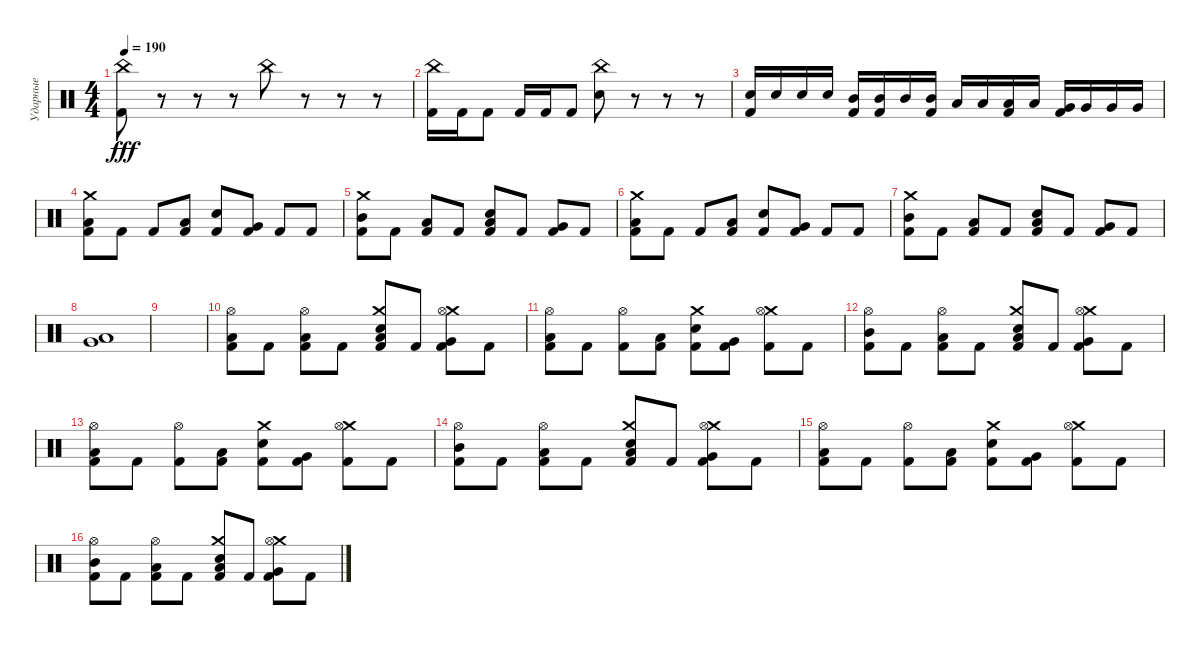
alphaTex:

\track ("Ударные" "Ударные") {instrument percussion}
\staff {score}
\articulation defaults
\ts (4 4)
\tempo 190
\clef neutral
\ks c
("China (hit)" "Kick (hit) 2").8{dy fff} r.8 r.8 r.8 "China (hit)".8 r.8 r.8 r.8 |
("China (hit)" "Kick (hit) 2").16 "Kick (hit) 2".16 "Kick (hit) 2".8 "Kick (hit) 2".16 "Kick (hit) 2".16 "Kick (hit) 2".8 ("China (hit)" "Electric Snare (hit)").8 r.8 r.8 r.8 |
("Electric Snare (hit)" "Kick (hit) 2").16 "Electric Snare (hit)".16 "Electric Snare (hit)".16 "Electric Snare (hit)".16 ("Mid Tom (hit)" "Kick (hit) 2").16 ("Mid Tom (hit)" "Kick (hit) 2").16 "Mid Tom (hit)".16 ("Mid Tom (hit)" "Kick (hit) 2").16 "Low Tom (hit)".16 "Low Tom (hit)".16 ("Low Tom (hit)" "Kick (hit) 2").16 "Low Tom (hit)".16 ("Very Low Tom (hit)" "Kick (hit) 2").16 "Very Low Tom (hit)".16 "Very Low Tom (hit)".16 "Very Low Tom (hit)".16 |
("Crash medium (hit)" "Low Tom (hit)" "Kick (hit) 2").8 "Kick (hit) 2".8 "Kick (hit) 2".8 ("Low Tom (hit)" "Kick (hit) 2").8 ("Electric Snare (hit)" "Kick (hit) 2").8 ("Very Low Tom (hit)" "Kick (hit) 2").8 "Kick (hit) 2".8 "Kick (hit) 2".8 |
("Crash medium (hit)" "Mid Tom (hit)" "Kick (hit) 2").8 "Kick (hit) 2".8 ("Low Tom (hit)" "Kick (hit) 2").8 "Kick (hit) 2".8 ("Low Floor Tom (hit)" "Electric Snare (hit)" "Kick (hit) 2").8 "Kick (hit) 2".8 ("Very Low Tom (hit)" "Kick (hit) 2").8 "Kick (hit) 2".8 |
("Crash medium (hit)" "Low Tom (hit)" "Kick (hit) 2").8 "Kick (hit) 2".8 "Kick (hit) 2".8 ("Low Tom (hit)" "Kick (hit) 2").8 ("Electric Snare (hit)" "Kick (hit) 2").8 ("Very Low Tom (hit)" "Kick (hit) 2").8 "Kick (hit) 2".8 "Kick (hit) 2".8 |
("Crash medium (hit)" "Mid Tom (hit)" "Kick (hit) 2").8 "Kick (hit) 2".8 ("Low Tom (hit)" "Kick (hit) 2").8 "Kick (hit) 2".8 ("Low Floor Tom (hit)" "Electric Snare (hit)" "Kick (hit) 2").8 "Kick (hit) 2".8 ("Very Low Tom (hit)" "Kick (hit) 2").8 "Kick (hit) 2".8 |
("Low Floor Tom (hit)" "Very Low Tom (hit)").1 |
|
("Low Tom (hit)" "Hi-Hat (open)" "Kick (hit) 2").8 "Kick (hit) 2".8 ("Low Tom (hit)" "Hi-Hat (open)" "Kick (hit) 2").8 "Kick (hit) 2".8 ("Crash medium (hit)" "Low Floor Tom (hit)" "Electric Snare (hit)" "Kick (hit) 2").8 "Kick (hit) 2".8 ("Crash medium (hit)" "Very Low Tom (hit)" "Hi-Hat (open)" "Kick (hit) 2").8 "Kick (hit) 2".8 |
("Low Tom (hit)" "Hi-Hat (open)" "Kick (hit) 2").8 "Kick (hit) 2".8 ("Hi-Hat (open)" "Kick (hit) 2").8 ("Low Tom (hit)" "Kick (hit) 2").8 ("Crash medium (hit)" "Electric Snare (hit)" "Kick (hit) 2").8 ("Very Low Tom (hit)" "Kick (hit) 2").8 ("Crash medium (hit)" "Hi-Hat (open)" "Kick (hit) 2").8 "Kick (hit) 2".8 |
("Mid Tom (hit)" "Hi-Hat (open)" "Kick (hit) 2").8 "Kick (hit) 2".8 ("Low Tom (hit)" "Hi-Hat (open)" "Kick (hit) 2").8 "Kick (hit) 2".8 ("Crash medium (hit)" "Low Floor Tom (hit)" "Electric Snare (hit)" "Kick (hit) 2").8 "Kick (hit) 2".8 ("Crash medium (hit)" "Very Low Tom (hit)" "Hi-Hat (open)" "Kick (hit) 2").8 "Kick (hit) 2".8 |
("Low Tom (hit)" "Hi-Hat (open)" "Kick (hit) 2").8 "Kick (hit) 2".8 ("Hi-Hat (open)" "Kick (hit) 2").8 ("Low Tom (hit)" "Kick (hit) 2").8 ("Crash medium (hit)" "Electric Snare (hit)" "Kick (hit) 2").8 ("Very Low Tom (hit)" "Kick (hit) 2").8 ("Crash medium (hit)" "Hi-Hat (open)" "Kick (hit) 2").8 "Kick (hit) 2".8 |
("Mid Tom (hit)" "Hi-Hat (open)" "Kick (hit) 2").8 "Kick (hit) 2".8 ("Low Tom (hit)" "Hi-Hat (open)" "Kick (hit) 2").8 "Kick (hit) 2".8 ("Crash medium (hit)" "Low Floor Tom (hit)" "Electric Snare (hit)" "Kick (hit) 2").8 "Kick (hit) 2".8 ("Crash medium (hit)" "Very Low Tom (hit)" "Hi-Hat (open)" "Kick (hit) 2").8 "Kick (hit) 2".8 |
("Low Tom (hit)" "Hi-Hat (open)" "Kick (hit) 2").8 "Kick (hit) 2".8 ("Hi-Hat (open)" "Kick (hit) 2").8 ("Low Tom (hit)" "Kick (hit) 2").8 ("Crash medium (hit)" "Electric Snare (hit)" "Kick (hit) 2").8 ("Very Low Tom (hit)" "Kick (hit) 2").8 ("Crash medium (hit)" "Hi-Hat (open)" "Kick (hit) 2").8 "Kick (hit) 2".8 |
("Mid Tom (hit)" "Hi-Hat (open)" "Kick (hit) 2").8 "Kick (hit) 2".8 ("Low Tom (hit)" "Hi-Hat (open)" "Kick (hit) 2").8 "Kick (hit) 2".8 ("Crash medium (hit)" "Low Floor Tom (hit)" "Electric Snare (hit)" "Kick (hit) 2").8 "Kick (hit) 2".8 ("Crash medium (hit)" "Very Low Tom (hit)" "Hi-Hat (open)" "Kick (hit) 2").8 "Kick (hit) 2".8
